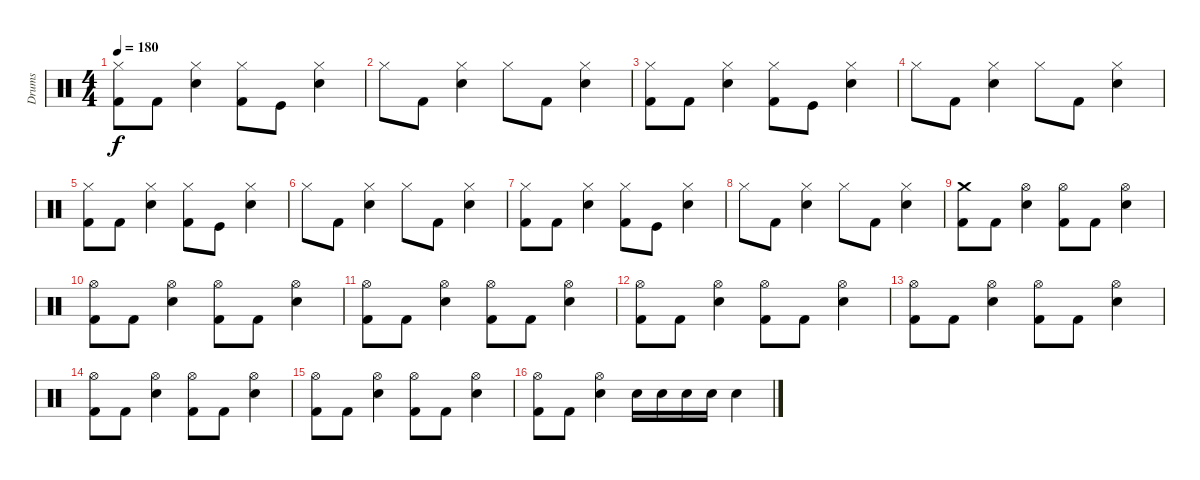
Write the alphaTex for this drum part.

\track ("Drums" "Drums") {instrument percussion}
\staff {score}
\articulation defaults
\ts (4 4)
\tempo 180
\clef neutral
\ks c
("Hi-Hat (closed)" "Kick (hit) 2").8{dy f} "Kick (hit) 2".8 ("Hi-Hat (closed)" "Electric Snare (hit)").4 ("Hi-Hat (closed)" "Kick (hit) 2").8 "Kick (hit)".8 ("Hi-Hat (closed)" "Electric Snare (hit)").4 |
"Hi-Hat (closed)".8 "Kick (hit) 2".8 ("Hi-Hat (closed)" "Electric Snare (hit)").4 "Hi-Hat (closed)".8 "Kick (hit) 2".8 ("Hi-Hat (closed)" "Electric Snare (hit)").4 |
("Hi-Hat (closed)" "Kick (hit) 2").8 "Kick (hit) 2".8 ("Hi-Hat (closed)" "Electric Snare (hit)").4 ("Hi-Hat (closed)" "Kick (hit) 2").8 "Kick (hit)".8 ("Hi-Hat (closed)" "Electric Snare (hit)").4 |
"Hi-Hat (closed)".8 "Kick (hit) 2".8 ("Hi-Hat (closed)" "Electric Snare (hit)").4 "Hi-Hat (closed)".8 "Kick (hit) 2".8 ("Hi-Hat (closed)" "Electric Snare (hit)").4 |
("Hi-Hat (closed)" "Kick (hit) 2").8 "Kick (hit) 2".8 ("Hi-Hat (closed)" "Electric Snare (hit)").4 ("Hi-Hat (closed)" "Kick (hit) 2").8 "Kick (hit)".8 ("Hi-Hat (closed)" "Electric Snare (hit)").4 |
"Hi-Hat (closed)".8 "Kick (hit) 2".8 ("Hi-Hat (closed)" "Electric Snare (hit)").4 "Hi-Hat (closed)".8 "Kick (hit) 2".8 ("Hi-Hat (closed)" "Electric Snare (hit)").4 |
("Hi-Hat (closed)" "Kick (hit) 2").8 "Kick (hit) 2".8 ("Hi-Hat (closed)" "Electric Snare (hit)").4 ("Hi-Hat (closed)" "Kick (hit) 2").8 "Kick (hit)".8 ("Hi-Hat (closed)" "Electric Snare (hit)").4 |
"Hi-Hat (closed)".8 "Kick (hit) 2".8 ("Hi-Hat (closed)" "Electric Snare (hit)").4 "Hi-Hat (closed)".8 "Kick (hit) 2".8 ("Hi-Hat (closed)" "Electric Snare (hit)").4 |
("Crash medium (hit)" "Kick (hit) 2").8 "Kick (hit) 2".8 ("Hi-Hat (open)" "Electric Snare (hit)").4 ("Hi-Hat (open)" "Kick (hit) 2").8 "Kick (hit) 2".8 ("Hi-Hat (open)" "Electric Snare (hit)").4 |
("Hi-Hat (open)" "Kick (hit) 2").8 "Kick (hit) 2".8 ("Hi-Hat (open)" "Electric Snare (hit)").4 ("Hi-Hat (open)" "Kick (hit) 2").8 "Kick (hit) 2".8 ("Hi-Hat (open)" "Electric Snare (hit)").4 |
("Hi-Hat (open)" "Kick (hit) 2").8 "Kick (hit) 2".8 ("Hi-Hat (open)" "Electric Snare (hit)").4 ("Hi-Hat (open)" "Kick (hit) 2").8 "Kick (hit) 2".8 ("Hi-Hat (open)" "Electric Snare (hit)").4 |
("Hi-Hat (open)" "Kick (hit) 2").8 "Kick (hit) 2".8 ("Hi-Hat (open)" "Electric Snare (hit)").4 ("Hi-Hat (open)" "Kick (hit) 2").8 "Kick (hit) 2".8 ("Hi-Hat (open)" "Electric Snare (hit)").4 |
("Hi-Hat (open)" "Kick (hit) 2").8 "Kick (hit) 2".8 ("Hi-Hat (open)" "Electric Snare (hit)").4 ("Hi-Hat (open)" "Kick (hit) 2").8 "Kick (hit) 2".8 ("Hi-Hat (open)" "Electric Snare (hit)").4 |
("Hi-Hat (open)" "Kick (hit) 2").8 "Kick (hit) 2".8 ("Hi-Hat (open)" "Electric Snare (hit)").4 ("Hi-Hat (open)" "Kick (hit) 2").8 "Kick (hit) 2".8 ("Hi-Hat (open)" "Electric Snare (hit)").4 |
("Hi-Hat (open)" "Kick (hit) 2").8 "Kick (hit) 2".8 ("Hi-Hat (open)" "Electric Snare (hit)").4 ("Hi-Hat (open)" "Kick (hit) 2").8 "Kick (hit) 2".8 ("Hi-Hat (open)" "Electric Snare (hit)").4 |
("Hi-Hat (open)" "Kick (hit) 2").8 "Kick (hit) 2".8 ("Hi-Hat (open)" "Electric Snare (hit)").4 "Electric Snare (hit)".16 "Electric Snare (hit)".16 "Electric Snare (hit)".16 "Electric Snare (hit)".16 "Electric Snare (hit)".4
